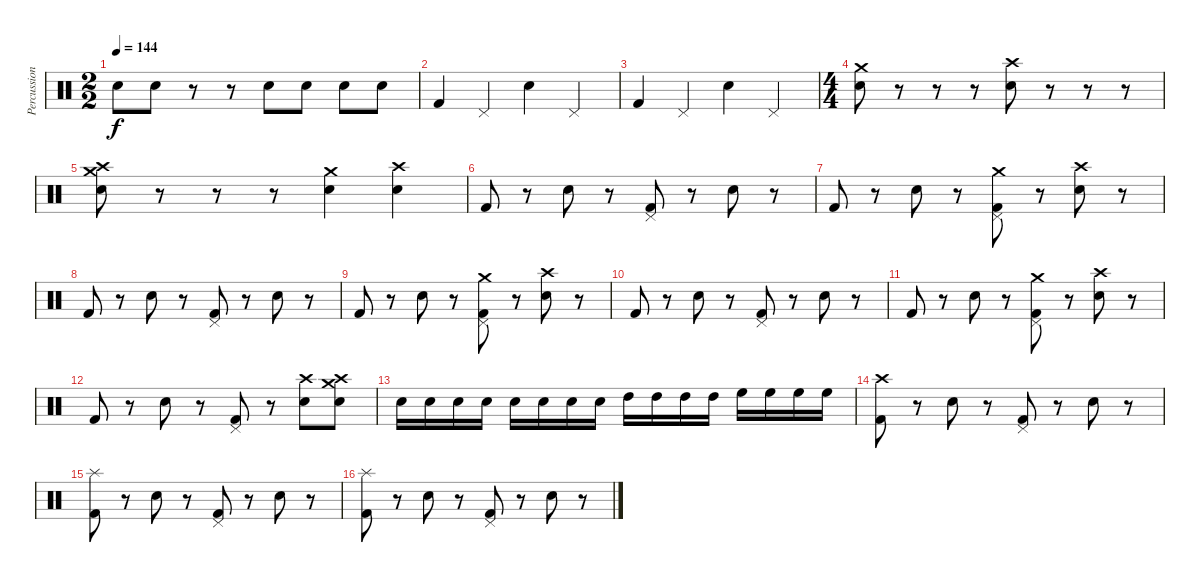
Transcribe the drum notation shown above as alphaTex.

\track ("Percussion" "Percussion") {instrument percussion}
\staff {score}
\articulation defaults
\ts (2 2)
\tempo 144
\clef neutral
\ks c "Snare (hit) 2".8{dy f} "Snare (hit) 2".8
r.8 r.8 "Electric Snare (hit)".8 "Electric Snare (hit)".8 "Snare (hit) 2".8 "Snare (hit) 2".8 |
"Kick (hit) 2".4 "Pedal Hi-Hat (hit)".4 "Snare (hit) 2".4 "Pedal Hi-Hat (hit)".4 |
"Kick (hit) 2".4 "Pedal Hi-Hat (hit)".4 "Snare (hit) 2".4 "Pedal Hi-Hat (hit)".4 |
\ts (4 4)
("Snare (hit) 2" "Crash medium (hit)").8 r.8 r.8 r.8 ("Snare (hit) 2" "Crash high (hit)").8 r.8 r.8 r.8 |
("Snare (hit) 2" "Crash high (hit)" "Crash medium (hit)").8 r.8 r.8 r.8 ("Snare (hit) 2" "Crash medium (hit)").4 ("Snare (hit) 2" "Crash high (hit)").4 |
"Kick (hit) 2".8 r.8 "Snare (hit) 2".8 r.8 ("Pedal Hi-Hat (hit)" "Kick (hit) 2").8 r.8 "Snare (hit) 2".8 r.8 |
"Kick (hit) 2".8 r.8 "Snare (hit) 2".8 r.8 ("Pedal Hi-Hat (hit)" "Kick (hit) 2" "Crash medium (hit)").8 r.8 ("Snare (hit) 2" "Crash high (hit)").8 r.8 |
"Kick (hit) 2".8 r.8 "Snare (hit) 2".8 r.8 ("Pedal Hi-Hat (hit)" "Kick (hit) 2").8 r.8 "Snare (hit) 2".8 r.8 |
"Kick (hit) 2".8 r.8 "Snare (hit) 2".8 r.8 ("Pedal Hi-Hat (hit)" "Kick (hit) 2" "Crash medium (hit)").8 r.8 ("Snare (hit) 2" "Crash high (hit)").8 r.8 |
"Kick (hit) 2".8 r.8 "Snare (hit) 2".8 r.8 ("Pedal Hi-Hat (hit)" "Kick (hit) 2").8 r.8 "Snare (hit) 2".8 r.8 |
"Kick (hit) 2".8 r.8 "Snare (hit) 2".8 r.8 ("Pedal Hi-Hat (hit)" "Kick (hit) 2" "Crash medium (hit)").8 r.8 ("Snare (hit) 2" "Crash high (hit)").8 r.8 |
"Kick (hit) 2".8 r.8 "Snare (hit) 2".8 r.8 ("Pedal Hi-Hat (hit)" "Kick (hit) 2").8 r.8 ("Snare (hit) 2" "Crash high (hit)").8 ("Snare (hit) 2" "Crash medium (hit)" "Crash high (hit)").8 |
"Electric Snare (hit)".16 "Electric Snare (hit)".16 "Electric Snare (hit)".16 "Electric Snare (hit)".16 "Snare (hit) 2".16 "Snare (hit) 2".16 "Snare (hit) 2".16 "Snare (hit) 2".16 "High Tom (hit)".16 "High Tom (hit)".16 "High Tom (hit)".16 "High Tom (hit)".16 "High Floor Tom (hit)".16 "High Floor Tom (hit)".16 "High Floor Tom (hit)".16 "High Floor Tom (hit)".16 |
("Crash high (hit)" "Kick (hit) 2").8 r.8 "Snare (hit) 2".8 r.8 ("Pedal Hi-Hat (hit)" "Kick (hit) 2").8 r.8 "Snare (hit) 2".8 r.8 |
("Kick (hit) 2" "Splash (hit)").8 r.8 "Snare (hit) 2".8 r.8 ("Pedal Hi-Hat (hit)" "Kick (hit) 2").8 r.8 "Snare (hit) 2".8 r.8 |
("Kick (hit) 2" "Splash (hit)").8 r.8 "Snare (hit) 2".8 r.8 ("Pedal Hi-Hat (hit)" "Kick (hit) 2").8 r.8 "Snare (hit) 2".8 r.8
